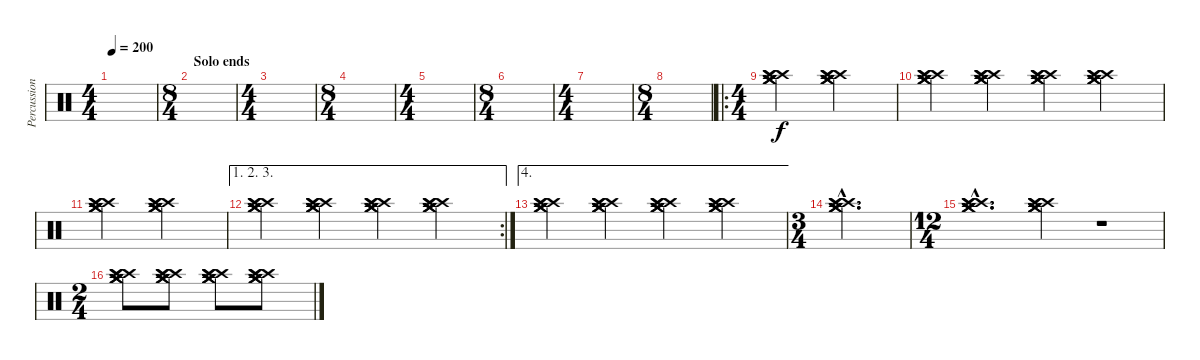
\track ("Percussion" "Percussion") {instrument percussion}
\staff {score}
\articulation defaults
\ts (4 4)
\tempo 200
\clef neutral
\ks c
|
\ts (8 4)
\section ("" "Solo ends")
|
\ts (4 4)
|
\ts (8 4)
|
\ts (4 4)
|
\ts (8 4)
|
\ts (4 4)
|
\ts (8 4)
|
\ro
\ts (4 4)
("Crash high (hit)" "Crash high (hit)" "Crash high (hit)" "Crash medium (hit)" "Crash medium (hit)" "Crash medium (hit)").2 ("Crash high (hit)" "Crash high (hit)" "Crash high (hit)" "Crash medium (hit)" "Crash medium (hit)" "Crash medium (hit)").2 |
("Crash high (hit)" "Crash high (hit)" "Crash high (hit)" "Crash medium (hit)" "Crash medium (hit)" "Crash medium (hit)").4 ("Crash high (hit)" "Crash high (hit)" "Crash high (hit)" "Crash medium (hit)" "Crash medium (hit)" "Crash medium (hit)").4 ("Crash high (hit)" "Crash high (hit)" "Crash high (hit)" "Crash medium (hit)" "Crash medium (hit)" "Crash medium (hit)").4 ("Crash high (hit)" "Crash high (hit)" "Crash high (hit)" "Crash medium (hit)" "Crash medium (hit)" "Crash medium (hit)").4 |
("Crash high (hit)" "Crash high (hit)" "Crash high (hit)" "Crash medium (hit)" "Crash medium (hit)" "Crash medium (hit)").2 ("Crash high (hit)" "Crash high (hit)" "Crash high (hit)" "Crash medium (hit)" "Crash medium (hit)" "Crash medium (hit)").2 |
\ae (1 2 3)
\rc 2
("Crash high (hit)" "Crash high (hit)" "Crash high (hit)" "Crash medium (hit)" "Crash medium (hit)" "Crash medium (hit)").4 ("Crash high (hit)" "Crash high (hit)" "Crash high (hit)" "Crash medium (hit)" "Crash medium (hit)" "Crash medium (hit)").4 ("Crash high (hit)" "Crash high (hit)" "Crash high (hit)" "Crash medium (hit)" "Crash medium (hit)" "Crash medium (hit)").4 ("Crash high (hit)" "Crash high (hit)" "Crash high (hit)" "Crash medium (hit)" "Crash medium (hit)" "Crash medium (hit)").4 |
\ae 4
("Crash high (hit)" "Crash high (hit)" "Crash high (hit)" "Crash medium (hit)" "Crash medium (hit)" "Crash medium (hit)").4 ("Crash high (hit)" "Crash high (hit)" "Crash high (hit)" "Crash medium (hit)" "Crash medium (hit)" "Crash medium (hit)").4 ("Crash high (hit)" "Crash high (hit)" "Crash high (hit)" "Crash medium (hit)" "Crash medium (hit)" "Crash medium (hit)").4 ("Crash high (hit)" "Crash high (hit)" "Crash high (hit)" "Crash medium (hit)" "Crash medium (hit)" "Crash medium (hit)").4 |
\ts (3 4)
("Crash high (hit)"{hac} "Crash high (hit)"{hac} "Crash high (hit)"{hac} "Crash medium (hit)"{hac} "Crash medium (hit)"{hac} "Crash medium (hit)"{hac}).2{d} |
\ts (12 4)
("Crash high (hit)"{hac} "Crash high (hit)"{hac} "Crash high (hit)"{hac} "Crash medium (hit)"{hac} "Crash medium (hit)"{hac} "Crash medium (hit)"{hac}).1{d} ("Crash high (hit)" "Crash high (hit)" "Crash high (hit)" "Crash medium (hit)" "Crash medium (hit)" "Crash medium (hit)").2 r.1 |
\ts (2 4)
("Crash high (hit)" "Crash high (hit)" "Crash high (hit)" "Crash medium (hit)" "Crash medium (hit)" "Crash medium (hit)").8 ("Crash high (hit)" "Crash high (hit)" "Crash high (hit)" "Crash medium (hit)" "Crash medium (hit)" "Crash medium (hit)").8 ("Crash high (hit)" "Crash high (hit)" "Crash high (hit)" "Crash medium (hit)" "Crash medium (hit)" "Crash medium (hit)").8 ("Crash high (hit)" "Crash high (hit)" "Crash high (hit)" "Crash medium (hit)" "Crash medium (hit)" "Crash medium (hit)").8
